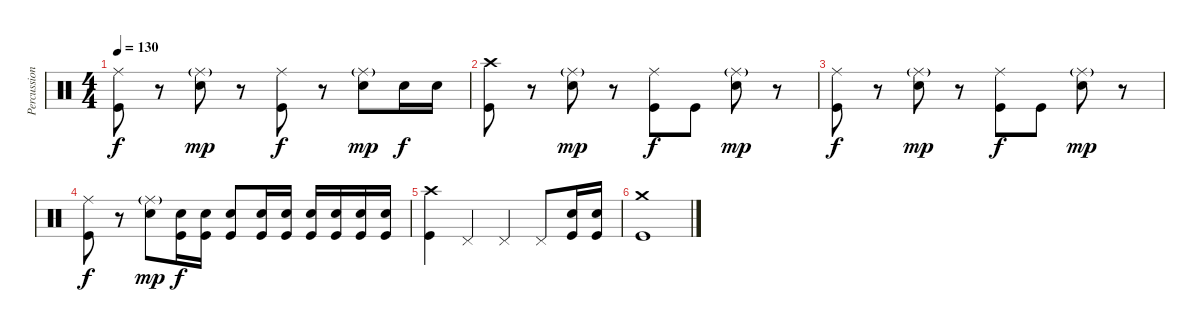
\track ("Percussion" "Percussion") {instrument percussion}
\staff {score}
\articulation defaults
\ts (4 4)
\tempo 130
\clef neutral
\ks c
("Ride (middle)" "Kick (hit)").8{dy f} r.8 ("Ride (middle)"{g} "Electric Snare (hit)").8{dy mp} r.8 ("Ride (middle)" "Kick (hit)").8{dy f} r.8 ("Ride (middle)"{g} "Electric Snare (hit)").8{dy mp} "Electric Snare (hit)".16{dy f} "Electric Snare (hit)".16 |
("Crash high (hit)" "Kick (hit)").8 r.8 ("Ride (middle)"{g} "Electric Snare (hit)").8{dy mp} r.8 ("Ride (middle)" "Kick (hit)").8{dy f} "Kick (hit)".8 ("Ride (middle)"{g} "Electric Snare (hit)").8{dy mp} r.8 |
("Ride (middle)" "Kick (hit)").8{dy f} r.8 ("Ride (middle)"{g} "Electric Snare (hit)").8{dy mp} r.8 ("Ride (middle)" "Kick (hit)").8{dy f} "Kick (hit)".8 ("Ride (middle)"{g} "Electric Snare (hit)").8{dy mp} r.8 |
("Ride (middle)" "Kick (hit)").8{dy f} r.8 ("Ride (middle)"{g} "Electric Snare (hit)").8{dy mp} ("Electric Snare (hit)" "Kick (hit)").16{dy f} ("Electric Snare (hit)" "Kick (hit)").16 ("Electric Snare (hit)" "Kick (hit)").8 ("Electric Snare (hit)" "Kick (hit)").16 ("Electric Snare (hit)" "Kick (hit)").16 ("Electric Snare (hit)" "Kick (hit)").16 ("Electric Snare (hit)" "Kick (hit)").16 ("Electric Snare (hit)" "Kick (hit)").16 ("Electric Snare (hit)" "Kick (hit)").16 |
("Crash high (hit)" "Kick (hit)").4 "Pedal Hi-Hat (hit)".4 "Pedal Hi-Hat (hit)".4 "Pedal Hi-Hat (hit)".8 ("Electric Snare (hit)" "Kick (hit)").16 ("Electric Snare (hit)" "Kick (hit)").16 |
("Crash medium (hit)" "Kick (hit)").1
